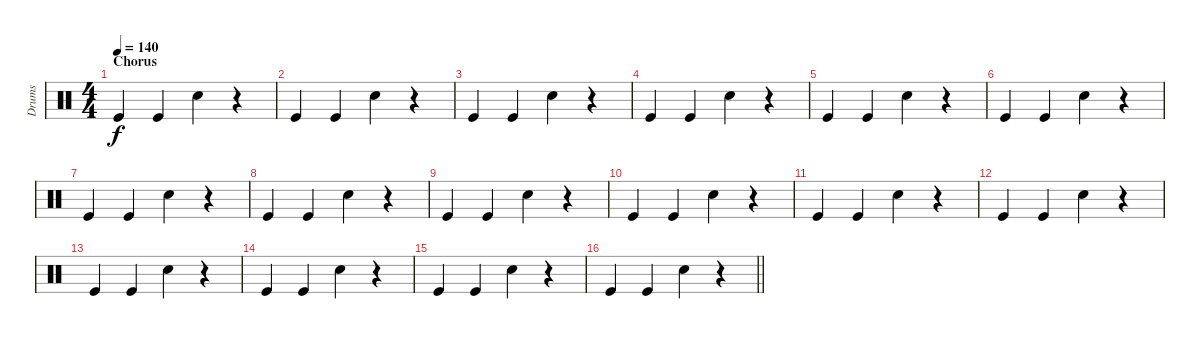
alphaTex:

\track ("Drums" "Drums") {instrument percussion}
\staff {score}
\articulation defaults
\ts (4 4)
\section ("" "Chorus")
\tempo 140
\clef neutral
\ks c "Kick (hit)".4{dy f} "Kick (hit)".4 "Snare (hit) 2".4
r.4 |
"Kick (hit)".4 "Kick (hit)".4 "Snare (hit) 2".4 r.4 |
"Kick (hit)".4 "Kick (hit)".4 "Snare (hit) 2".4 r.4 |
"Kick (hit)".4 "Kick (hit)".4 "Snare (hit) 2".4 r.4 |
"Kick (hit)".4 "Kick (hit)".4 "Snare (hit) 2".4 r.4 |
"Kick (hit)".4 "Kick (hit)".4 "Snare (hit) 2".4 r.4 |
"Kick (hit)".4 "Kick (hit)".4 "Snare (hit) 2".4 r.4 |
"Kick (hit)".4 "Kick (hit)".4 "Snare (hit) 2".4 r.4 |
"Kick (hit)".4 "Kick (hit)".4 "Snare (hit) 2".4 r.4 |
"Kick (hit)".4 "Kick (hit)".4 "Snare (hit) 2".4 r.4 |
"Kick (hit)".4 "Kick (hit)".4 "Snare (hit) 2".4 r.4 |
"Kick (hit)".4 "Kick (hit)".4 "Snare (hit) 2".4 r.4 |
"Kick (hit)".4 "Kick (hit)".4 "Snare (hit) 2".4 r.4 |
"Kick (hit)".4 "Kick (hit)".4 "Snare (hit) 2".4 r.4 |
"Kick (hit)".4 "Kick (hit)".4 "Snare (hit) 2".4 r.4 |
\barLineRight lightlight "Kick (hit)".4 "Kick (hit)".4 "Snare (hit) 2".4
r.4
